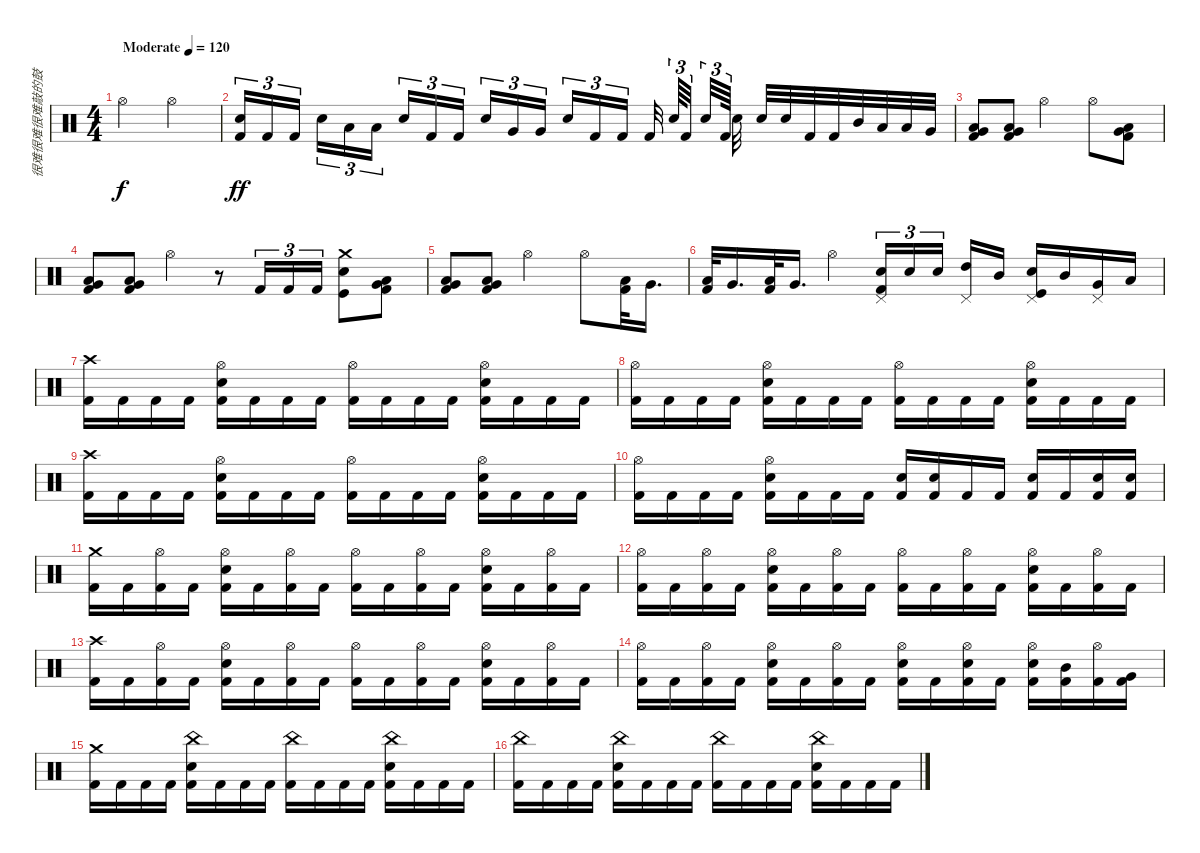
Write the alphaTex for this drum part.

\track ("很难很难很难敲的鼓" "很难很难很难敲的鼓") {instrument percussion}
\staff {score}
\articulation defaults
\ts (4 4)
\tempo (120 "Moderate")
\clef neutral
\ks c "Hi-Hat (open)".2{dy f} "Hi-Hat (open)".2
|
("Kick (hit) 2" "Electric Snare (hit)").16{tu (3 2) dy ff} "Kick (hit) 2".16{tu (3 2)} "Kick (hit) 2".16{tu (3 2) beam splitsecondary} "Electric Snare (hit)".16{tu (3 2)} "Low Tom (hit)".16{tu (3 2)} "Low Tom (hit)".16{tu (3 2)} "Electric Snare (hit)".16{tu (3 2)} "Kick (hit) 2".16{tu (3 2)} "Kick (hit) 2".16{tu (3 2) beam splitsecondary} "Electric Snare (hit)".16{tu (3 2)} "Very Low Tom (hit)".16{tu (3 2)} "Very Low Tom (hit)".16{tu (3 2)} "Electric Snare (hit)".16{tu (3 2)} "Kick (hit) 2".16{tu (3 2)} "Kick (hit) 2".16{tu (3 2) beam splitsecondary} "Kick (hit) 2".32{beam splitsecondary} "Electric Snare (hit)".64{tu (3 2)} "Kick (hit) 2".32{tu (3 2) beam splitsecondary} "Electric Snare (hit)".32{tu (3 2)} "Kick (hit) 2".64{tu (3 2) beam splitsecondary} "Electric Snare (hit)".32 "Electric Snare (hit)".32 "Electric Snare (hit)".32 "Kick (hit) 2".32 "Kick (hit) 2".32 "Mid Tom (hit)".32 "Low Tom (hit)".32 "Low Tom (hit)".32 "Very Low Tom (hit)".32 |
("Kick (hit) 2" "Low Floor Tom (hit)" "Very Low Tom (hit)").8 ("Kick (hit) 2" "Low Floor Tom (hit)" "Very Low Tom (hit)").8 "Hi-Hat (open)".2 "Hi-Hat (open)".8 ("Kick (hit) 2" "Low Floor Tom (hit)" "Very Low Tom (hit)").8 |
("Kick (hit) 2" "Low Floor Tom (hit)" "Very Low Tom (hit)").8 ("Kick (hit) 2" "Low Floor Tom (hit)" "Very Low Tom (hit)").8 "Hi-Hat (open)".4 r.8 "Kick (hit) 2".16{tu (3 2)} "Kick (hit) 2".16{tu (3 2)} "Kick (hit) 2".16{tu (3 2)} ("Kick (hit)" "Electric Snare (hit)" "Crash medium (hit)").8 ("Kick (hit) 2" "Low Floor Tom (hit)" "Very Low Tom (hit)").8 |
("Kick (hit) 2" "Low Floor Tom (hit)" "Very Low Tom (hit)").8 ("Kick (hit) 2" "Low Floor Tom (hit)" "Very Low Tom (hit)").8 "Hi-Hat (open)".2 "Hi-Hat (open)".8 ("Kick (hit) 2" "Low Floor Tom (hit)").32 "Very Low Tom (hit)".16{d} |
("Kick (hit) 2" "Low Floor Tom (hit)").32 "Very Low Tom (hit)".16{d} ("Kick (hit) 2" "Low Floor Tom (hit)").32 "Very Low Tom (hit)".16{d} "Hi-Hat (open)".4 ("Kick (hit) 2" "Electric Snare (hit)" "Pedal Hi-Hat (hit)").16{tu (3 2)} "Electric Snare (hit)".16{tu (3 2)} "Electric Snare (hit)".16{tu (3 2) beam splitsecondary} ("Pedal Hi-Hat (hit)" "High Tom (hit)").16 "Mid Tom (hit)".16 ("Kick (hit)" "Electric Snare (hit)" "Pedal Hi-Hat (hit)").16 "Mid Tom (hit)".16 ("Pedal Hi-Hat (hit)" "Very Low Tom (hit)").16 "Low Floor Tom (hit)".16 |
("Kick (hit) 2" "Crash high (hit)").16 "Kick (hit) 2".16 "Kick (hit) 2".16 "Kick (hit) 2".16 ("Kick (hit) 2" "Electric Snare (hit)" "Hi-Hat (open)").16 "Kick (hit) 2".16 "Kick (hit) 2".16 "Kick (hit) 2".16 ("Kick (hit) 2" "Hi-Hat (open)").16 "Kick (hit) 2".16 "Kick (hit) 2".16 "Kick (hit) 2".16 ("Kick (hit) 2" "Electric Snare (hit)" "Hi-Hat (open)").16 "Kick (hit) 2".16 "Kick (hit) 2".16 "Kick (hit) 2".16 |
("Kick (hit) 2" "Hi-Hat (open)").16 "Kick (hit) 2".16 "Kick (hit) 2".16 "Kick (hit) 2".16 ("Kick (hit) 2" "Electric Snare (hit)" "Hi-Hat (open)").16 "Kick (hit) 2".16 "Kick (hit) 2".16 "Kick (hit) 2".16 ("Kick (hit) 2" "Hi-Hat (open)").16 "Kick (hit) 2".16 "Kick (hit) 2".16 "Kick (hit) 2".16 ("Kick (hit) 2" "Electric Snare (hit)" "Hi-Hat (open)").16 "Kick (hit) 2".16 "Kick (hit) 2".16 "Kick (hit) 2".16 |
("Kick (hit) 2" "Crash high (hit)").16 "Kick (hit) 2".16 "Kick (hit) 2".16 "Kick (hit) 2".16 ("Kick (hit) 2" "Electric Snare (hit)" "Hi-Hat (open)").16 "Kick (hit) 2".16 "Kick (hit) 2".16 "Kick (hit) 2".16 ("Kick (hit) 2" "Hi-Hat (open)").16 "Kick (hit) 2".16 "Kick (hit) 2".16 "Kick (hit) 2".16 ("Kick (hit) 2" "Electric Snare (hit)" "Hi-Hat (open)").16 "Kick (hit) 2".16 "Kick (hit) 2".16 "Kick (hit) 2".16 |
("Kick (hit) 2" "Hi-Hat (open)").16 "Kick (hit) 2".16 "Kick (hit) 2".16 "Kick (hit) 2".16 ("Kick (hit) 2" "Electric Snare (hit)" "Hi-Hat (open)").16 "Kick (hit) 2".16 "Kick (hit) 2".16 "Kick (hit) 2".16 ("Kick (hit) 2" "Electric Snare (hit)").16 ("Kick (hit) 2" "Electric Snare (hit)").16 "Kick (hit) 2".16 "Kick (hit) 2".16 ("Kick (hit) 2" "Electric Snare (hit)").16 "Kick (hit) 2".16 ("Kick (hit) 2" "Electric Snare (hit)").16 ("Kick (hit) 2" "Electric Snare (hit)").16 |
("Kick (hit) 2" "Crash medium (hit)").16 "Kick (hit) 2".16 ("Kick (hit) 2" "Hi-Hat (open)").16 "Kick (hit) 2".16 ("Kick (hit) 2" "Electric Snare (hit)" "Hi-Hat (open)").16 "Kick (hit) 2".16 ("Kick (hit) 2" "Hi-Hat (open)").16 "Kick (hit) 2".16 ("Kick (hit) 2" "Hi-Hat (open)").16 "Kick (hit) 2".16 ("Kick (hit) 2" "Hi-Hat (open)").16 "Kick (hit) 2".16 ("Kick (hit) 2" "Electric Snare (hit)" "Hi-Hat (open)").16 "Kick (hit) 2".16 ("Kick (hit) 2" "Hi-Hat (open)").16 "Kick (hit) 2".16 |
("Kick (hit) 2" "Hi-Hat (open)").16 "Kick (hit) 2".16 ("Kick (hit) 2" "Hi-Hat (open)").16 "Kick (hit) 2".16 ("Kick (hit) 2" "Electric Snare (hit)" "Hi-Hat (open)").16 "Kick (hit) 2".16 ("Kick (hit) 2" "Hi-Hat (open)").16 "Kick (hit) 2".16 ("Kick (hit) 2" "Hi-Hat (open)").16 "Kick (hit) 2".16 ("Kick (hit) 2" "Hi-Hat (open)").16 "Kick (hit) 2".16 ("Kick (hit) 2" "Electric Snare (hit)" "Hi-Hat (open)").16 "Kick (hit) 2".16 ("Kick (hit) 2" "Hi-Hat (open)").16 "Kick (hit) 2".16 |
("Kick (hit) 2" "Crash high (hit)").16 "Kick (hit) 2".16 ("Kick (hit) 2" "Hi-Hat (open)").16 "Kick (hit) 2".16 ("Kick (hit) 2" "Electric Snare (hit)" "Hi-Hat (open)").16 "Kick (hit) 2".16 ("Kick (hit) 2" "Hi-Hat (open)").16 "Kick (hit) 2".16 ("Kick (hit) 2" "Hi-Hat (open)").16 "Kick (hit) 2".16 ("Kick (hit) 2" "Hi-Hat (open)").16 "Kick (hit) 2".16 ("Kick (hit) 2" "Electric Snare (hit)" "Hi-Hat (open)").16 "Kick (hit) 2".16 ("Kick (hit) 2" "Hi-Hat (open)").16 "Kick (hit) 2".16 |
("Kick (hit) 2" "Hi-Hat (open)").16 "Kick (hit) 2".16 ("Kick (hit) 2" "Hi-Hat (open)").16 "Kick (hit) 2".16 ("Kick (hit) 2" "Electric Snare (hit)" "Hi-Hat (open)").16 "Kick (hit) 2".16 ("Kick (hit) 2" "Hi-Hat (open)").16 "Kick (hit) 2".16 ("Kick (hit) 2" "Electric Snare (hit)" "Hi-Hat (open)").16 "Kick (hit) 2".16 ("Kick (hit) 2" "Electric Snare (hit)" "Hi-Hat (open)").16 "Kick (hit) 2".16 ("Kick (hit) 2" "Electric Snare (hit)" "Hi-Hat (open)").16 ("Kick (hit) 2" "Mid Tom (hit)").16 ("Kick (hit) 2" "Hi-Hat (open)").16 ("Kick (hit) 2" "Very Low Tom (hit)").16 |
("Kick (hit) 2" "Crash medium (hit)").16 "Kick (hit) 2".16 "Kick (hit) 2".16 "Kick (hit) 2".16 ("China (hit)" "Kick (hit) 2" "Electric Snare (hit)").16 "Kick (hit) 2".16 "Kick (hit) 2".16 "Kick (hit) 2".16 ("China (hit)" "Kick (hit) 2").16 "Kick (hit) 2".16 "Kick (hit) 2".16 "Kick (hit) 2".16 ("China (hit)" "Kick (hit) 2" "Electric Snare (hit)").16 "Kick (hit) 2".16 "Kick (hit) 2".16 "Kick (hit) 2".16 |
("China (hit)" "Kick (hit) 2").16 "Kick (hit) 2".16 "Kick (hit) 2".16 "Kick (hit) 2".16 ("China (hit)" "Kick (hit) 2" "Electric Snare (hit)").16 "Kick (hit) 2".16 "Kick (hit) 2".16 "Kick (hit) 2".16 ("China (hit)" "Kick (hit) 2").16 "Kick (hit) 2".16 "Kick (hit) 2".16 "Kick (hit) 2".16 ("China (hit)" "Kick (hit) 2" "Electric Snare (hit)").16 "Kick (hit) 2".16 "Kick (hit) 2".16 "Kick (hit) 2".16
